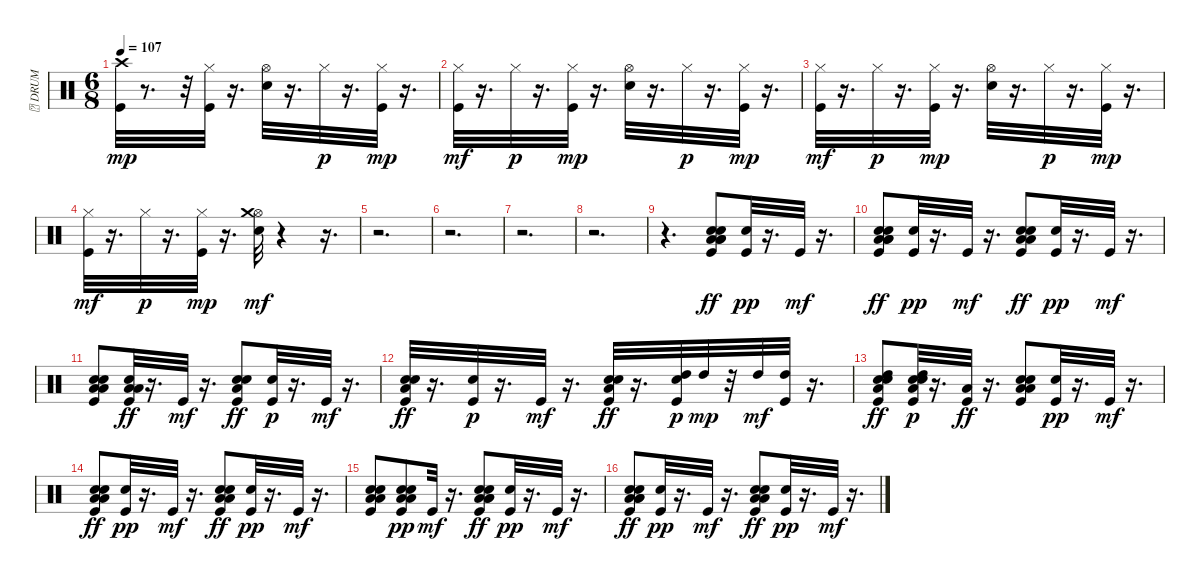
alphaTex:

\track ("\t DRUM" "\t DRUM") {instrument percussion}
\staff {score}
\articulation defaults
\ts (6 8)
\tempo 107
\clef neutral
\ks c
("Kick (hit)" "Crash high (hit)").32{dy mp} r.8{d} r.32 ("Kick (hit)" "Hi-Hat (closed)").32 r.16{d} ("Electric Snare (hit)" "Hi-Hat (open)").32 r.16{d} "Hi-Hat (closed)".32{dy p} r.16{d} ("Kick (hit)" "Hi-Hat (closed)").32{dy mp} r.16{d} |
("Kick (hit)" "Hi-Hat (closed)").32{dy mf} r.16{d} "Hi-Hat (closed)".32{dy p} r.16{d} ("Kick (hit)" "Hi-Hat (closed)").32{dy mp} r.16{d} ("Electric Snare (hit)" "Hi-Hat (open)").32 r.16{d} "Hi-Hat (closed)".32{dy p} r.16{d} ("Kick (hit)" "Hi-Hat (closed)").32{dy mp} r.16{d} |
("Kick (hit)" "Hi-Hat (closed)").32{dy mf} r.16{d} "Hi-Hat (closed)".32{dy p} r.16{d} ("Kick (hit)" "Hi-Hat (closed)").32{dy mp} r.16{d} ("Electric Snare (hit)" "Hi-Hat (open)").32 r.16{d} "Hi-Hat (closed)".32{dy p} r.16{d} ("Kick (hit)" "Hi-Hat (closed)").32{dy mp} r.16{d} |
("Kick (hit)" "Hi-Hat (closed)").32{dy mf} r.16{d} "Hi-Hat (closed)".32{dy p} r.16{d} ("Kick (hit)" "Hi-Hat (closed)").32{dy mp} r.16{d} ("Electric Snare (hit)" "Hi-Hat (open)" "Crash medium (hit)").32{dy mf} r.4 r.16{d} |
r.2{d} |
r.2{d} |
r.2{d} |
r.2{d} |
r.4{d} ("Kick (hit)" "Hand Clap (hit)" "Low Floor Tom (hit)" "Low Tom (hit)" "Hand Clap (hit)" "Low Floor Tom (hit)").8{dy ff} ("Kick (hit)" "Hand Clap (hit)").32{dy pp} r.16{d} "Kick (hit)".32{dy mf} r.16{d} |
("Kick (hit)" "Hand Clap (hit)" "Low Floor Tom (hit)" "Low Tom (hit)" "Hand Clap (hit)" "Low Floor Tom (hit)").8{dy ff} ("Kick (hit)" "Hand Clap (hit)").32{dy pp} r.16{d} "Kick (hit)".32{dy mf} r.16{d} ("Kick (hit)" "Hand Clap (hit)" "Low Floor Tom (hit)" "Low Tom (hit)" "Hand Clap (hit)").8{dy ff} ("Kick (hit)" "Hand Clap (hit)").32{dy pp} r.16{d} "Kick (hit)".32{dy mf} r.16{d} |
("Kick (hit)" "Hand Clap (hit)" "Low Floor Tom (hit)" "Low Tom (hit)" "Hand Clap (hit)").8 ("Kick (hit)" "Hand Clap (hit)" "Low Floor Tom (hit)" "Low Tom (hit)").32{dy ff} r.16{d} "Kick (hit)".32{dy mf} r.16{d} ("Kick (hit)" "Hand Clap (hit)" "Low Floor Tom (hit)" "Hand Clap (hit)").8{dy ff} ("Kick (hit)" "Hand Clap (hit)").32{dy p} r.16{d} "Kick (hit)".32{dy mf} r.16{d} |
("Kick (hit)" "Hand Clap (hit)" "Low Tom (hit)" "Hand Clap (hit)").32{dy ff} r.16{d} ("Kick (hit)" "Hand Clap (hit)").32{dy p} r.16{d} "Kick (hit)".32{dy mf} r.16{d} ("Kick (hit)" "Hand Clap (hit)" "Low Floor Tom (hit)" "Hand Clap (hit)").32{dy ff} r.16{d} ("Kick (hit)" "Hand Clap (hit)" "High Tom (hit)").32{dy p} "High Tom (hit)".32{dy mp} r.32 "High Tom (hit)".32{dy mf} ("Kick (hit)" "High Tom (hit)").32 r.16{d} |
("Kick (hit)" "Hand Clap (hit)" "Low Tom (hit)" "High Tom (hit)" "Hand Clap (hit)").8{dy ff} ("Kick (hit)" "Hand Clap (hit)" "Low Tom (hit)" "High Tom (hit)" "Hand Clap (hit)").32{dy p} r.16{d} ("Kick (hit)" "Low Floor Tom (hit)").32{dy ff} r.16{d} ("Kick (hit)" "Hand Clap (hit)" "Low Floor Tom (hit)" "Low Tom (hit)" "Hand Clap (hit)").8 ("Kick (hit)" "Hand Clap (hit)").32{dy pp} r.16{d} "Kick (hit)".32{dy mf} r.16{d} |
("Kick (hit)" "Hand Clap (hit)" "Low Floor Tom (hit)" "Low Tom (hit)" "Hand Clap (hit)").8{dy ff} ("Kick (hit)" "Hand Clap (hit)").32{dy pp} r.16{d} "Kick (hit)".32{dy mf} r.16{d} ("Kick (hit)" "Hand Clap (hit)" "Low Floor Tom (hit)" "Low Tom (hit)" "Hand Clap (hit)").8{dy ff} ("Kick (hit)" "Hand Clap (hit)").32{dy pp} r.16{d} "Kick (hit)".32{dy mf} r.16{d} |
("Kick (hit)" "Hand Clap (hit)" "Low Floor Tom (hit)" "Low Tom (hit)" "Hand Clap (hit)").8 ("Kick (hit)" "Hand Clap (hit)" "Low Floor Tom (hit)" "Low Tom (hit)" "Hand Clap (hit)").8{dy pp} "Kick (hit)".32{dy mf} r.16{d} ("Kick (hit)" "Hand Clap (hit)" "Low Floor Tom (hit)" "Low Tom (hit)" "Hand Clap (hit)" "Low Floor Tom (hit)").8{dy ff} ("Kick (hit)" "Hand Clap (hit)").32{dy pp} r.16{d} "Kick (hit)".32{dy mf} r.16{d} |
("Kick (hit)" "Hand Clap (hit)" "Low Floor Tom (hit)" "Low Tom (hit)" "Hand Clap (hit)" "Low Floor Tom (hit)").8{dy ff} ("Kick (hit)" "Hand Clap (hit)").32{dy pp} r.16{d} "Kick (hit)".32{dy mf} r.16{d} ("Kick (hit)" "Hand Clap (hit)" "Low Floor Tom (hit)" "Low Tom (hit)" "Hand Clap (hit)").8{dy ff} ("Kick (hit)" "Hand Clap (hit)").32{dy pp} r.16{d} "Kick (hit)".32{dy mf} r.16{d}
